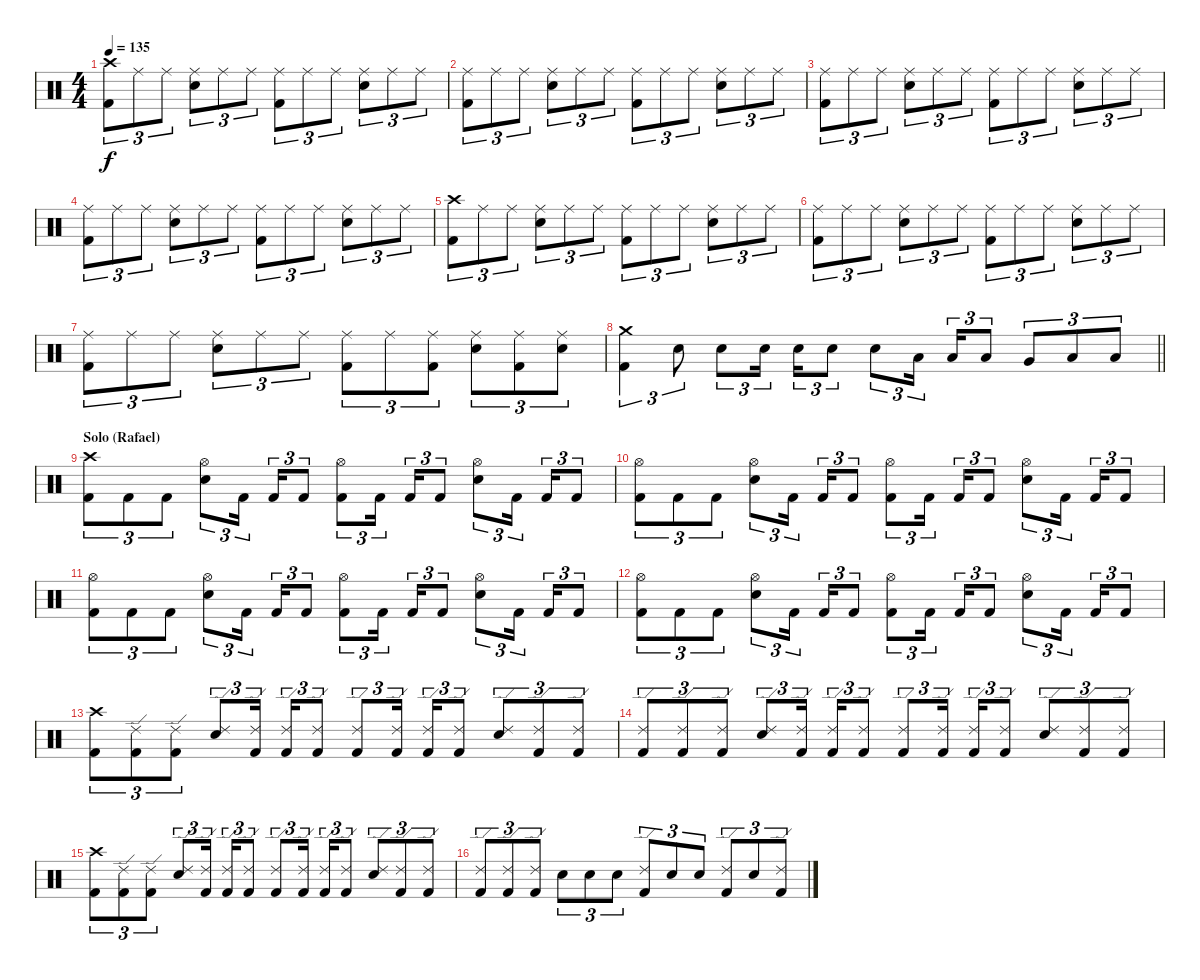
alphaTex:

\track "" {instrument percussion}
\staff {score}
\articulation defaults
\ts (4 4)
\tempo 135
\clef neutral
\ks c
("Crash high (hit)" "Kick (hit) 2").8{tu (3 2) dy f} "Ride (middle)".8{tu (3 2)} "Ride (middle)".8{tu (3 2)} ("Ride (middle)" "Electric Snare (hit)").8{tu (3 2)} "Ride (middle)".8{tu (3 2)} "Ride (middle)".8{tu (3 2)} ("Ride (middle)" "Kick (hit) 2").8{tu (3 2)} "Ride (middle)".8{tu (3 2)} "Ride (middle)".8{tu (3 2)} ("Ride (middle)" "Electric Snare (hit)").8{tu (3 2)} "Ride (middle)".8{tu (3 2)} "Ride (middle)".8{tu (3 2)} |
("Ride (middle)" "Kick (hit) 2").8{tu (3 2)} "Ride (middle)".8{tu (3 2)} "Ride (middle)".8{tu (3 2)} ("Ride (middle)" "Electric Snare (hit)").8{tu (3 2)} "Ride (middle)".8{tu (3 2)} "Ride (middle)".8{tu (3 2)} ("Ride (middle)" "Kick (hit) 2").8{tu (3 2)} "Ride (middle)".8{tu (3 2)} "Ride (middle)".8{tu (3 2)} ("Ride (middle)" "Electric Snare (hit)").8{tu (3 2)} "Ride (middle)".8{tu (3 2)} "Ride (middle)".8{tu (3 2)} |
("Ride (middle)" "Kick (hit) 2").8{tu (3 2)} "Ride (middle)".8{tu (3 2)} "Ride (middle)".8{tu (3 2)} ("Ride (middle)" "Electric Snare (hit)").8{tu (3 2)} "Ride (middle)".8{tu (3 2)} "Ride (middle)".8{tu (3 2)} ("Ride (middle)" "Kick (hit) 2").8{tu (3 2)} "Ride (middle)".8{tu (3 2)} "Ride (middle)".8{tu (3 2)} ("Ride (middle)" "Electric Snare (hit)").8{tu (3 2)} "Ride (middle)".8{tu (3 2)} "Ride (middle)".8{tu (3 2)} |
("Ride (middle)" "Kick (hit) 2").8{tu (3 2)} "Ride (middle)".8{tu (3 2)} "Ride (middle)".8{tu (3 2)} ("Ride (middle)" "Electric Snare (hit)").8{tu (3 2)} "Ride (middle)".8{tu (3 2)} "Ride (middle)".8{tu (3 2)} ("Ride (middle)" "Kick (hit) 2").8{tu (3 2)} "Ride (middle)".8{tu (3 2)} "Ride (middle)".8{tu (3 2)} ("Ride (middle)" "Electric Snare (hit)").8{tu (3 2)} "Ride (middle)".8{tu (3 2)} "Ride (middle)".8{tu (3 2)} |
("Crash high (hit)" "Kick (hit) 2").8{tu (3 2)} "Ride (middle)".8{tu (3 2)} "Ride (middle)".8{tu (3 2)} ("Ride (middle)" "Electric Snare (hit)").8{tu (3 2)} "Ride (middle)".8{tu (3 2)} "Ride (middle)".8{tu (3 2)} ("Ride (middle)" "Kick (hit) 2").8{tu (3 2)} "Ride (middle)".8{tu (3 2)} "Ride (middle)".8{tu (3 2)} ("Ride (middle)" "Electric Snare (hit)").8{tu (3 2)} "Ride (middle)".8{tu (3 2)} "Ride (middle)".8{tu (3 2)} |
("Ride (middle)" "Kick (hit) 2").8{tu (3 2)} "Ride (middle)".8{tu (3 2)} "Ride (middle)".8{tu (3 2)} ("Ride (middle)" "Electric Snare (hit)").8{tu (3 2)} "Ride (middle)".8{tu (3 2)} "Ride (middle)".8{tu (3 2)} ("Ride (middle)" "Kick (hit) 2").8{tu (3 2)} "Ride (middle)".8{tu (3 2)} "Ride (middle)".8{tu (3 2)} ("Ride (middle)" "Electric Snare (hit)").8{tu (3 2)} "Ride (middle)".8{tu (3 2)} "Ride (middle)".8{tu (3 2)} |
("Ride (middle)" "Kick (hit) 2").8{tu (3 2)} "Ride (middle)".8{tu (3 2)} "Ride (middle)".8{tu (3 2)} ("Ride (middle)" "Electric Snare (hit)").8{tu (3 2)} "Ride (middle)".8{tu (3 2)} "Ride (middle)".8{tu (3 2)} ("Ride (middle)" "Kick (hit) 2").8{tu (3 2)} "Ride (middle)".8{tu (3 2)} ("Ride (middle)" "Kick (hit) 2").8{tu (3 2)} ("Ride (middle)" "Electric Snare (hit)").8{tu (3 2)} ("Ride (middle)" "Kick (hit) 2").8{tu (3 2)} ("Ride (middle)" "Electric Snare (hit)").8{tu (3 2)} |
\barLineRight lightlight
("Crash medium (hit)" "Kick (hit) 2").4{tu (3 2)} "Electric Snare (hit)".8{tu (3 2)} "Electric Snare (hit)".8{tu (3 2)} "Electric Snare (hit)".16{tu (3 2)} "Electric Snare (hit)".16{tu (3 2)} "Electric Snare (hit)".8{tu (3 2)} "Electric Snare (hit)".8{tu (3 2)} "Low Tom (hit)".16{tu (3 2)} "Low Tom (hit)".16{tu (3 2)} "Low Tom (hit)".8{tu (3 2)} "Very Low Tom (hit)".8{tu (3 2)} "Low Floor Tom (hit)".8{tu (3 2)} "Low Floor Tom (hit)".8{tu (3 2)} |
\section ("" "Solo (Rafael)")
("Crash high (hit)" "Kick (hit) 2").8{tu (3 2)} "Kick (hit) 2".8{tu (3 2)} "Kick (hit) 2".8{tu (3 2)} ("Hi-Hat (open)" "Electric Snare (hit)").8{tu (3 2)} "Kick (hit) 2".16{tu (3 2)} "Kick (hit) 2".16{tu (3 2)} "Kick (hit) 2".8{tu (3 2)} ("Hi-Hat (open)" "Kick (hit) 2").8{tu (3 2)} "Kick (hit) 2".16{tu (3 2)} "Kick (hit) 2".16{tu (3 2)} "Kick (hit) 2".8{tu (3 2)} ("Hi-Hat (open)" "Electric Snare (hit)").8{tu (3 2)} "Kick (hit) 2".16{tu (3 2)} "Kick (hit) 2".16{tu (3 2)} "Kick (hit) 2".8{tu (3 2)} |
("Hi-Hat (open)" "Kick (hit) 2").8{tu (3 2)} "Kick (hit) 2".8{tu (3 2)} "Kick (hit) 2".8{tu (3 2)} ("Hi-Hat (open)" "Electric Snare (hit)").8{tu (3 2)} "Kick (hit) 2".16{tu (3 2)} "Kick (hit) 2".16{tu (3 2)} "Kick (hit) 2".8{tu (3 2)} ("Hi-Hat (open)" "Kick (hit) 2").8{tu (3 2)} "Kick (hit) 2".16{tu (3 2)} "Kick (hit) 2".16{tu (3 2)} "Kick (hit) 2".8{tu (3 2)} ("Hi-Hat (open)" "Electric Snare (hit)").8{tu (3 2)} "Kick (hit) 2".16{tu (3 2)} "Kick (hit) 2".16{tu (3 2)} "Kick (hit) 2".8{tu (3 2)} |
("Hi-Hat (open)" "Kick (hit) 2").8{tu (3 2)} "Kick (hit) 2".8{tu (3 2)} "Kick (hit) 2".8{tu (3 2)} ("Hi-Hat (open)" "Electric Snare (hit)").8{tu (3 2)} "Kick (hit) 2".16{tu (3 2)} "Kick (hit) 2".16{tu (3 2)} "Kick (hit) 2".8{tu (3 2)} ("Hi-Hat (open)" "Kick (hit) 2").8{tu (3 2)} "Kick (hit) 2".16{tu (3 2)} "Kick (hit) 2".16{tu (3 2)} "Kick (hit) 2".8{tu (3 2)} ("Hi-Hat (open)" "Electric Snare (hit)").8{tu (3 2)} "Kick (hit) 2".16{tu (3 2)} "Kick (hit) 2".16{tu (3 2)} "Kick (hit) 2".8{tu (3 2)} |
("Hi-Hat (open)" "Kick (hit) 2").8{tu (3 2)} "Kick (hit) 2".8{tu (3 2)} "Kick (hit) 2".8{tu (3 2)} ("Hi-Hat (open)" "Electric Snare (hit)").8{tu (3 2)} "Kick (hit) 2".16{tu (3 2)} "Kick (hit) 2".16{tu (3 2)} "Kick (hit) 2".8{tu (3 2)} ("Hi-Hat (open)" "Kick (hit) 2").8{tu (3 2)} "Kick (hit) 2".16{tu (3 2)} "Kick (hit) 2".16{tu (3 2)} "Kick (hit) 2".8{tu (3 2)} ("Hi-Hat (open)" "Electric Snare (hit)").8{tu (3 2)} "Kick (hit) 2".16{tu (3 2)} "Kick (hit) 2".16{tu (3 2)} "Kick (hit) 2".8{tu (3 2)} |
("Crash high (hit)" "Kick (hit) 2").8{tu (3 2)} ("Ride (edge) 2" "Kick (hit) 2").8{tu (3 2)} ("Ride (edge) 2" "Kick (hit) 2").8{tu (3 2)} ("Ride (edge) 2" "Electric Snare (hit)").8{tu (3 2)} ("Ride (edge) 2" "Kick (hit) 2").16{tu (3 2)} ("Ride (edge) 2" "Kick (hit) 2").16{tu (3 2)} ("Ride (edge) 2" "Kick (hit) 2").8{tu (3 2)} ("Ride (edge) 2" "Kick (hit) 2").8{tu (3 2)} ("Ride (edge) 2" "Kick (hit) 2").16{tu (3 2)} ("Ride (edge) 2" "Kick (hit) 2").16{tu (3 2)} ("Ride (edge) 2" "Kick (hit) 2").8{tu (3 2)} ("Ride (edge) 2" "Electric Snare (hit)").8{tu (3 2)} ("Ride (edge) 2" "Kick (hit) 2").8{tu (3 2)} ("Ride (edge) 2" "Kick (hit) 2").8{tu (3 2)} |
("Ride (edge) 2" "Kick (hit) 2").8{tu (3 2)} ("Ride (edge) 2" "Kick (hit) 2").8{tu (3 2)} ("Ride (edge) 2" "Kick (hit) 2").8{tu (3 2)} ("Ride (edge) 2" "Electric Snare (hit)").8{tu (3 2)} ("Ride (edge) 2" "Kick (hit) 2").16{tu (3 2)} ("Ride (edge) 2" "Kick (hit) 2").16{tu (3 2)} ("Ride (edge) 2" "Kick (hit) 2").8{tu (3 2)} ("Ride (edge) 2" "Kick (hit) 2").8{tu (3 2)} ("Ride (edge) 2" "Kick (hit) 2").16{tu (3 2)} ("Ride (edge) 2" "Kick (hit) 2").16{tu (3 2)} ("Ride (edge) 2" "Kick (hit) 2").8{tu (3 2)} ("Ride (edge) 2" "Electric Snare (hit)").8{tu (3 2)} ("Ride (edge) 2" "Kick (hit) 2").8{tu (3 2)} ("Ride (edge) 2" "Kick (hit) 2").8{tu (3 2)} |
("Crash high (hit)" "Kick (hit) 2").8{tu (3 2)} ("Ride (edge) 2" "Kick (hit) 2").8{tu (3 2)} ("Ride (edge) 2" "Kick (hit) 2").8{tu (3 2)} ("Ride (edge) 2" "Electric Snare (hit)").8{tu (3 2)} ("Ride (edge) 2" "Kick (hit) 2").16{tu (3 2)} ("Ride (edge) 2" "Kick (hit) 2").16{tu (3 2)} ("Ride (edge) 2" "Kick (hit) 2").8{tu (3 2)} ("Ride (edge) 2" "Kick (hit) 2").8{tu (3 2)} ("Ride (edge) 2" "Kick (hit) 2").16{tu (3 2)} ("Ride (edge) 2" "Kick (hit) 2").16{tu (3 2)} ("Ride (edge) 2" "Kick (hit) 2").8{tu (3 2)} ("Ride (edge) 2" "Electric Snare (hit)").8{tu (3 2)} ("Ride (edge) 2" "Kick (hit) 2").8{tu (3 2)} ("Ride (edge) 2" "Kick (hit) 2").8{tu (3 2)} |
("Ride (edge) 2" "Kick (hit) 2").8{tu (3 2)} ("Ride (edge) 2" "Kick (hit) 2").8{tu (3 2)} ("Ride (edge) 2" "Kick (hit) 2").8{tu (3 2)} "Electric Snare (hit)".8{tu (3 2)} "Electric Snare (hit)".8{tu (3 2)} "Electric Snare (hit)".8{tu (3 2)} ("Ride (edge) 2" "Kick (hit) 2").8{tu (3 2)} "Electric Snare (hit)".8{tu (3 2)} "Electric Snare (hit)".8{tu (3 2)} ("Ride (edge) 2" "Kick (hit) 2").8{tu (3 2)} "Electric Snare (hit)".8{tu (3 2)} ("Ride (edge) 2" "Kick (hit) 2").8{tu (3 2)}
